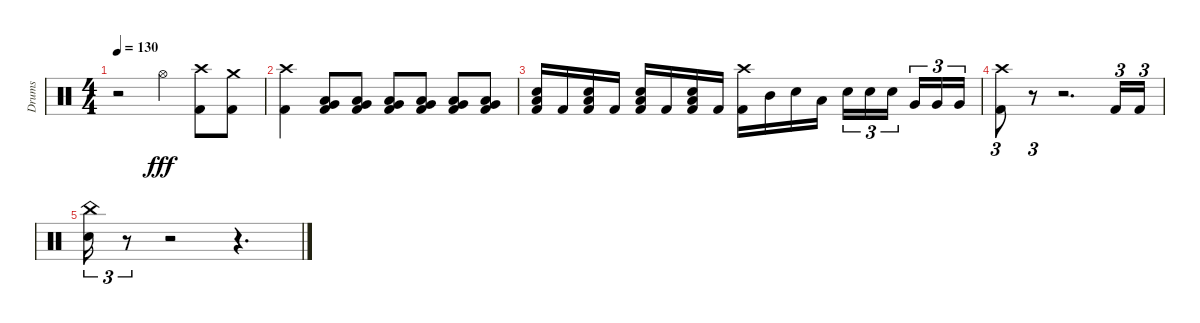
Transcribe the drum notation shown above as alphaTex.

\track ("Drums" "Drums") {instrument percussion}
\staff {score}
\articulation defaults
\ts (4 4)
\tempo 130
\clef neutral
\ks aminor
r.2{dy fff} "Hi-Hat (open)".4 ("Kick (hit) 2" "Crash high (hit)").8 ("Kick (hit) 2" "Crash medium (hit)").8 |
("Kick (hit) 2" "Crash high (hit)").4 ("Low Floor Tom (hit)" "Very Low Tom (hit)" "Kick (hit) 2").8 ("Kick (hit) 2" "Low Floor Tom (hit)" "Very Low Tom (hit)").8 ("Kick (hit) 2" "Low Floor Tom (hit)" "Very Low Tom (hit)").8 ("Kick (hit) 2" "Low Floor Tom (hit)" "Very Low Tom (hit)").8 ("Low Floor Tom (hit)" "Very Low Tom (hit)" "Kick (hit) 2").8 ("Kick (hit) 2" "Low Floor Tom (hit)" "Very Low Tom (hit)").8 |
("Kick (hit) 2" "Snare (hit) 2" "Low Floor Tom (hit)").16 "Kick (hit) 2".16 ("Kick (hit) 2" "Snare (hit) 2" "Low Floor Tom (hit)").16 "Kick (hit) 2".16 ("Low Floor Tom (hit)" "Kick (hit) 2" "Snare (hit) 2").16 "Kick (hit) 2".16 ("Kick (hit) 2" "Snare (hit) 2" "Low Floor Tom (hit)").16 "Kick (hit) 2".16 ("Kick (hit) 2" "Crash high (hit)").16 "Mid Tom (hit)".16 "Snare (hit) 2".16 "Low Tom (hit)".16 "Snare (hit) 2".16{tu (3 2)} "Snare (hit) 2".16{tu (3 2)} "Snare (hit) 2".16{tu (3 2)} "Very Low Tom (hit)".16{tu (3 2)} "Very Low Tom (hit)".16{tu (3 2)} "Very Low Tom (hit)".16{tu (3 2)} |
("Kick (hit) 2" "Crash high (hit)").8{tu (3 2)} r.8{tu (3 2)} r.2{d} "Kick (hit) 2".16{tu (3 2)} "Kick (hit) 2".16{tu (3 2)} |
("Snare (hit) 2" "China (hit)").16{tu (3 2)} r.8{tu (3 2)} r.2 r.4{d}
